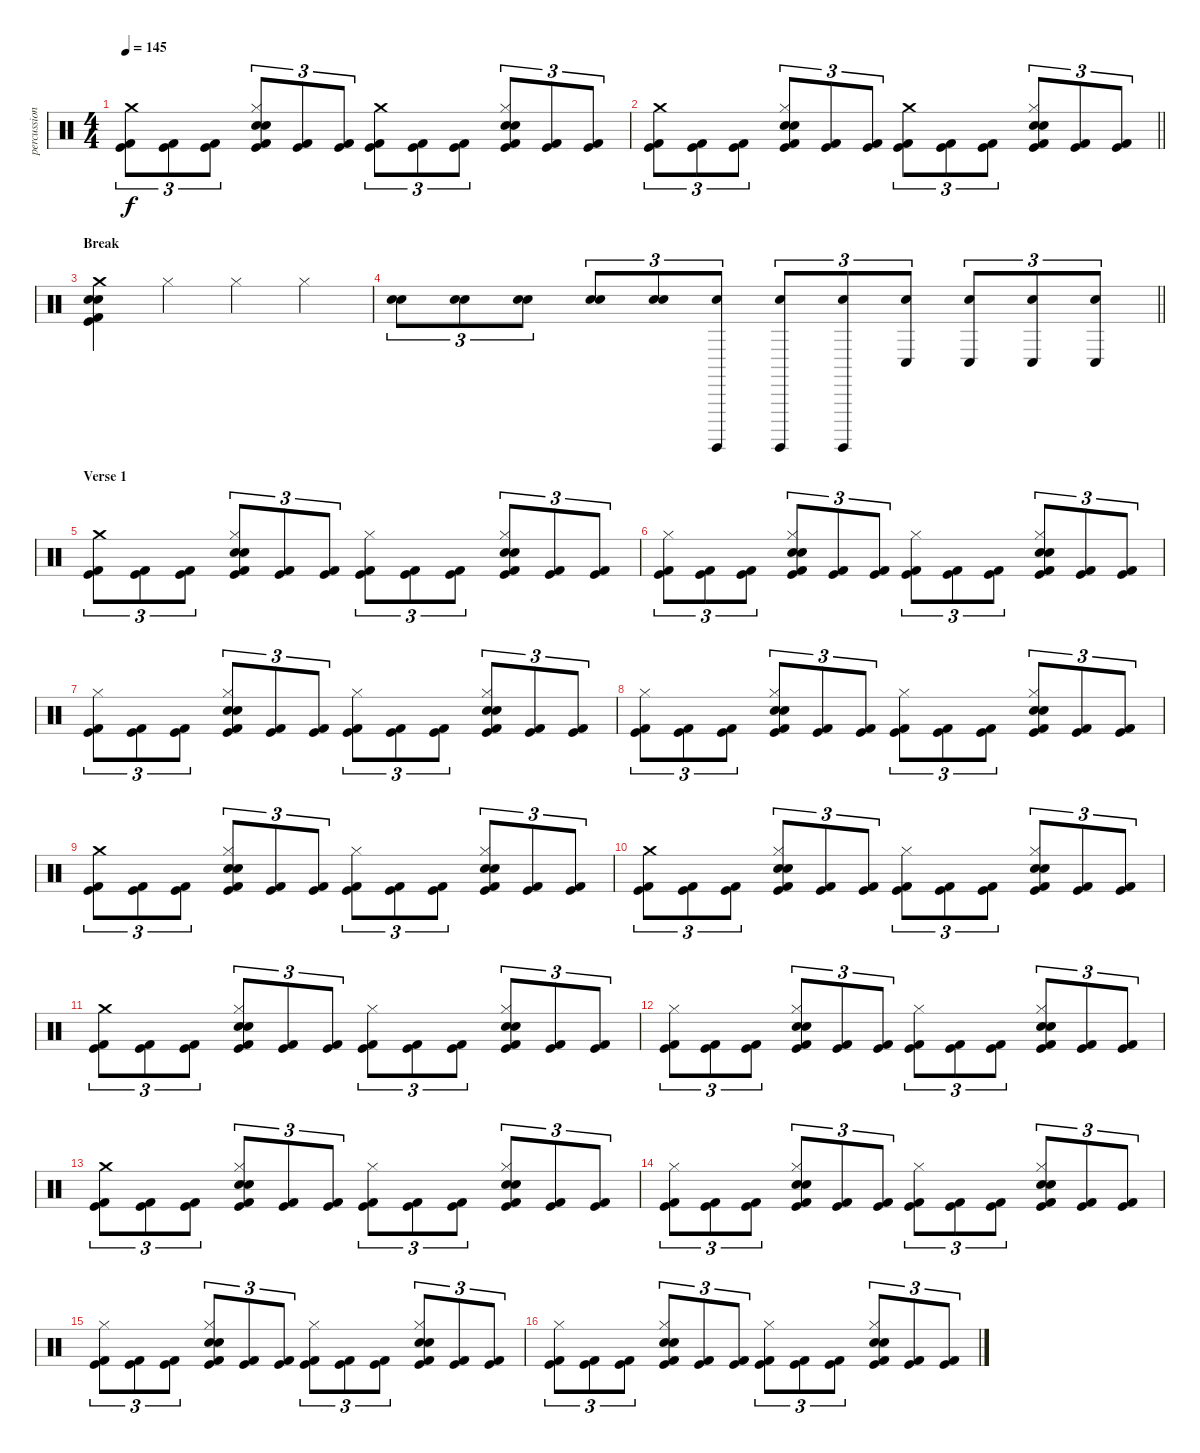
\track ("percussion" "percussion") {instrument percussion}
\staff {score}
\articulation defaults
\ts (4 4)
\tempo 145
\clef neutral
\ks c
("Crash medium (hit)" "Kick (hit)" "Kick (hit) 2").8{tu (3 2) dy f} ("Kick (hit)" "Kick (hit) 2").8{tu (3 2)} ("Kick (hit)" "Kick (hit) 2").8{tu (3 2)} ("Hi-Hat (closed)" "Electric Snare (hit)" "Snare (hit) 2" "Kick (hit)" "Kick (hit) 2").8{tu (3 2)} ("Kick (hit)" "Kick (hit) 2").8{tu (3 2)} ("Kick (hit)" "Kick (hit) 2").8{tu (3 2)} ("Crash medium (hit)" "Kick (hit)" "Kick (hit) 2").8{tu (3 2)} ("Kick (hit)" "Kick (hit) 2").8{tu (3 2)} ("Kick (hit)" "Kick (hit) 2").8{tu (3 2)} ("Hi-Hat (closed)" "Electric Snare (hit)" "Snare (hit) 2" "Kick (hit)" "Kick (hit) 2").8{tu (3 2)} ("Kick (hit)" "Kick (hit) 2").8{tu (3 2)} ("Kick (hit)" "Kick (hit) 2").8{tu (3 2)} |
\barLineRight lightlight
("Crash medium (hit)" "Kick (hit)" "Kick (hit) 2").8{tu (3 2)} ("Kick (hit)" "Kick (hit) 2").8{tu (3 2)} ("Kick (hit)" "Kick (hit) 2").8{tu (3 2)} ("Hi-Hat (closed)" "Electric Snare (hit)" "Snare (hit) 2" "Kick (hit)" "Kick (hit) 2").8{tu (3 2)} ("Kick (hit)" "Kick (hit) 2").8{tu (3 2)} ("Kick (hit)" "Kick (hit) 2").8{tu (3 2)} ("Crash medium (hit)" "Kick (hit)" "Kick (hit) 2").8{tu (3 2)} ("Kick (hit)" "Kick (hit) 2").8{tu (3 2)} ("Kick (hit)" "Kick (hit) 2").8{tu (3 2)} ("Hi-Hat (closed)" "Electric Snare (hit)" "Snare (hit) 2" "Kick (hit)" "Kick (hit) 2").8{tu (3 2)} ("Kick (hit)" "Kick (hit) 2").8{tu (3 2)} ("Kick (hit)" "Kick (hit) 2").8{tu (3 2)} |
\section ("" "Break")
("Crash medium (hit)" "Electric Snare (hit)" "Snare (hit) 2" "Kick (hit)" "Kick (hit) 2").4 "Hi-Hat (closed)".4 "Hi-Hat (closed)".4 "Hi-Hat (closed)".4 |
\barLineRight lightlight
("Electric Snare (hit)" "Snare (hit) 2").8{tu (3 2)} ("Electric Snare (hit)" "Snare (hit) 2").8{tu (3 2)} ("Electric Snare (hit)" "Snare (hit) 2").8{tu (3 2)} ("Electric Snare (hit)" "Snare (hit) 2").8{tu (3 2)} ("Electric Snare (hit)" "Snare (hit) 2").8{tu (3 2)} ("Electric Snare (hit)" "Surdo (hit)").8{tu (3 2)} ("Electric Snare (hit)" "Surdo (hit)").8{tu (3 2)} ("Electric Snare (hit)" "Surdo (hit)").8{tu (3 2)} ("Electric Snare (hit)" "Conga low (hit)").8{tu (3 2)} ("Electric Snare (hit)" "Conga low (hit)").8{tu (3 2)} ("Electric Snare (hit)" "Conga low (hit)").8{tu (3 2)} ("Electric Snare (hit)" "Conga low (hit)").8{tu (3 2)} |
\section ("" "Verse 1")
("Crash medium (hit)" "Kick (hit)" "Kick (hit) 2").8{tu (3 2)} ("Kick (hit)" "Kick (hit) 2").8{tu (3 2)} ("Kick (hit)" "Kick (hit) 2").8{tu (3 2)} ("Hi-Hat (closed)" "Electric Snare (hit)" "Snare (hit) 2" "Kick (hit)" "Kick (hit) 2").8{tu (3 2)} ("Kick (hit)" "Kick (hit) 2").8{tu (3 2)} ("Kick (hit)" "Kick (hit) 2").8{tu (3 2)} ("Hi-Hat (closed)" "Kick (hit)" "Kick (hit) 2").8{tu (3 2)} ("Kick (hit)" "Kick (hit) 2").8{tu (3 2)} ("Kick (hit)" "Kick (hit) 2").8{tu (3 2)} ("Hi-Hat (closed)" "Electric Snare (hit)" "Snare (hit) 2" "Kick (hit)" "Kick (hit) 2").8{tu (3 2)} ("Kick (hit)" "Kick (hit) 2").8{tu (3 2)} ("Kick (hit)" "Kick (hit) 2").8{tu (3 2)} |
("Hi-Hat (closed)" "Kick (hit)" "Kick (hit) 2").8{tu (3 2)} ("Kick (hit)" "Kick (hit) 2").8{tu (3 2)} ("Kick (hit)" "Kick (hit) 2").8{tu (3 2)} ("Hi-Hat (closed)" "Electric Snare (hit)" "Snare (hit) 2" "Kick (hit)" "Kick (hit) 2").8{tu (3 2)} ("Kick (hit)" "Kick (hit) 2").8{tu (3 2)} ("Kick (hit)" "Kick (hit) 2").8{tu (3 2)} ("Hi-Hat (closed)" "Kick (hit)" "Kick (hit) 2").8{tu (3 2)} ("Kick (hit)" "Kick (hit) 2").8{tu (3 2)} ("Kick (hit)" "Kick (hit) 2").8{tu (3 2)} ("Hi-Hat (closed)" "Electric Snare (hit)" "Snare (hit) 2" "Kick (hit)" "Kick (hit) 2").8{tu (3 2)} ("Kick (hit)" "Kick (hit) 2").8{tu (3 2)} ("Kick (hit)" "Kick (hit) 2").8{tu (3 2)} |
("Hi-Hat (closed)" "Kick (hit)" "Kick (hit) 2").8{tu (3 2)} ("Kick (hit)" "Kick (hit) 2").8{tu (3 2)} ("Kick (hit)" "Kick (hit) 2").8{tu (3 2)} ("Hi-Hat (closed)" "Electric Snare (hit)" "Snare (hit) 2" "Kick (hit)" "Kick (hit) 2").8{tu (3 2)} ("Kick (hit)" "Kick (hit) 2").8{tu (3 2)} ("Kick (hit)" "Kick (hit) 2").8{tu (3 2)} ("Hi-Hat (closed)" "Kick (hit)" "Kick (hit) 2").8{tu (3 2)} ("Kick (hit)" "Kick (hit) 2").8{tu (3 2)} ("Kick (hit)" "Kick (hit) 2").8{tu (3 2)} ("Hi-Hat (closed)" "Electric Snare (hit)" "Snare (hit) 2" "Kick (hit)" "Kick (hit) 2").8{tu (3 2)} ("Kick (hit)" "Kick (hit) 2").8{tu (3 2)} ("Kick (hit)" "Kick (hit) 2").8{tu (3 2)} |
("Hi-Hat (closed)" "Kick (hit)" "Kick (hit) 2").8{tu (3 2)} ("Kick (hit)" "Kick (hit) 2").8{tu (3 2)} ("Kick (hit)" "Kick (hit) 2").8{tu (3 2)} ("Hi-Hat (closed)" "Electric Snare (hit)" "Snare (hit) 2" "Kick (hit)" "Kick (hit) 2").8{tu (3 2)} ("Kick (hit)" "Kick (hit) 2").8{tu (3 2)} ("Kick (hit)" "Kick (hit) 2").8{tu (3 2)} ("Hi-Hat (closed)" "Kick (hit)" "Kick (hit) 2").8{tu (3 2)} ("Kick (hit)" "Kick (hit) 2").8{tu (3 2)} ("Kick (hit)" "Kick (hit) 2").8{tu (3 2)} ("Hi-Hat (closed)" "Electric Snare (hit)" "Snare (hit) 2" "Kick (hit)" "Kick (hit) 2").8{tu (3 2)} ("Kick (hit)" "Kick (hit) 2").8{tu (3 2)} ("Kick (hit)" "Kick (hit) 2").8{tu (3 2)} |
("Crash medium (hit)" "Kick (hit)" "Kick (hit) 2").8{tu (3 2)} ("Kick (hit)" "Kick (hit) 2").8{tu (3 2)} ("Kick (hit)" "Kick (hit) 2").8{tu (3 2)} ("Hi-Hat (closed)" "Electric Snare (hit)" "Snare (hit) 2" "Kick (hit)" "Kick (hit) 2").8{tu (3 2)} ("Kick (hit)" "Kick (hit) 2").8{tu (3 2)} ("Kick (hit)" "Kick (hit) 2").8{tu (3 2)} ("Hi-Hat (closed)" "Kick (hit)" "Kick (hit) 2").8{tu (3 2)} ("Kick (hit)" "Kick (hit) 2").8{tu (3 2)} ("Kick (hit)" "Kick (hit) 2").8{tu (3 2)} ("Hi-Hat (closed)" "Electric Snare (hit)" "Snare (hit) 2" "Kick (hit)" "Kick (hit) 2").8{tu (3 2)} ("Kick (hit)" "Kick (hit) 2").8{tu (3 2)} ("Kick (hit)" "Kick (hit) 2").8{tu (3 2)} |
("Crash medium (hit)" "Kick (hit)" "Kick (hit) 2").8{tu (3 2)} ("Kick (hit)" "Kick (hit) 2").8{tu (3 2)} ("Kick (hit)" "Kick (hit) 2").8{tu (3 2)} ("Hi-Hat (closed)" "Electric Snare (hit)" "Snare (hit) 2" "Kick (hit)" "Kick (hit) 2").8{tu (3 2)} ("Kick (hit)" "Kick (hit) 2").8{tu (3 2)} ("Kick (hit)" "Kick (hit) 2").8{tu (3 2)} ("Hi-Hat (closed)" "Kick (hit)" "Kick (hit) 2").8{tu (3 2)} ("Kick (hit)" "Kick (hit) 2").8{tu (3 2)} ("Kick (hit)" "Kick (hit) 2").8{tu (3 2)} ("Hi-Hat (closed)" "Electric Snare (hit)" "Snare (hit) 2" "Kick (hit)" "Kick (hit) 2").8{tu (3 2)} ("Kick (hit)" "Kick (hit) 2").8{tu (3 2)} ("Kick (hit)" "Kick (hit) 2").8{tu (3 2)} |
("Crash medium (hit)" "Kick (hit)" "Kick (hit) 2").8{tu (3 2)} ("Kick (hit)" "Kick (hit) 2").8{tu (3 2)} ("Kick (hit)" "Kick (hit) 2").8{tu (3 2)} ("Hi-Hat (closed)" "Electric Snare (hit)" "Snare (hit) 2" "Kick (hit)" "Kick (hit) 2").8{tu (3 2)} ("Kick (hit)" "Kick (hit) 2").8{tu (3 2)} ("Kick (hit)" "Kick (hit) 2").8{tu (3 2)} ("Hi-Hat (closed)" "Kick (hit)" "Kick (hit) 2").8{tu (3 2)} ("Kick (hit)" "Kick (hit) 2").8{tu (3 2)} ("Kick (hit)" "Kick (hit) 2").8{tu (3 2)} ("Hi-Hat (closed)" "Electric Snare (hit)" "Snare (hit) 2" "Kick (hit)" "Kick (hit) 2").8{tu (3 2)} ("Kick (hit)" "Kick (hit) 2").8{tu (3 2)} ("Kick (hit)" "Kick (hit) 2").8{tu (3 2)} |
("Hi-Hat (closed)" "Kick (hit)" "Kick (hit) 2").8{tu (3 2)} ("Kick (hit)" "Kick (hit) 2").8{tu (3 2)} ("Kick (hit)" "Kick (hit) 2").8{tu (3 2)} ("Hi-Hat (closed)" "Electric Snare (hit)" "Snare (hit) 2" "Kick (hit)" "Kick (hit) 2").8{tu (3 2)} ("Kick (hit)" "Kick (hit) 2").8{tu (3 2)} ("Kick (hit)" "Kick (hit) 2").8{tu (3 2)} ("Hi-Hat (closed)" "Kick (hit)" "Kick (hit) 2").8{tu (3 2)} ("Kick (hit)" "Kick (hit) 2").8{tu (3 2)} ("Kick (hit)" "Kick (hit) 2").8{tu (3 2)} ("Hi-Hat (closed)" "Electric Snare (hit)" "Snare (hit) 2" "Kick (hit)" "Kick (hit) 2").8{tu (3 2)} ("Kick (hit)" "Kick (hit) 2").8{tu (3 2)} ("Kick (hit)" "Kick (hit) 2").8{tu (3 2)} |
("Crash medium (hit)" "Kick (hit)" "Kick (hit) 2").8{tu (3 2)} ("Kick (hit)" "Kick (hit) 2").8{tu (3 2)} ("Kick (hit)" "Kick (hit) 2").8{tu (3 2)} ("Hi-Hat (closed)" "Electric Snare (hit)" "Snare (hit) 2" "Kick (hit)" "Kick (hit) 2").8{tu (3 2)} ("Kick (hit)" "Kick (hit) 2").8{tu (3 2)} ("Kick (hit)" "Kick (hit) 2").8{tu (3 2)} ("Hi-Hat (closed)" "Kick (hit)" "Kick (hit) 2").8{tu (3 2)} ("Kick (hit)" "Kick (hit) 2").8{tu (3 2)} ("Kick (hit)" "Kick (hit) 2").8{tu (3 2)} ("Hi-Hat (closed)" "Electric Snare (hit)" "Snare (hit) 2" "Kick (hit)" "Kick (hit) 2").8{tu (3 2)} ("Kick (hit)" "Kick (hit) 2").8{tu (3 2)} ("Kick (hit)" "Kick (hit) 2").8{tu (3 2)} |
("Hi-Hat (closed)" "Kick (hit)" "Kick (hit) 2").8{tu (3 2)} ("Kick (hit)" "Kick (hit) 2").8{tu (3 2)} ("Kick (hit)" "Kick (hit) 2").8{tu (3 2)} ("Hi-Hat (closed)" "Electric Snare (hit)" "Snare (hit) 2" "Kick (hit)" "Kick (hit) 2").8{tu (3 2)} ("Kick (hit)" "Kick (hit) 2").8{tu (3 2)} ("Kick (hit)" "Kick (hit) 2").8{tu (3 2)} ("Hi-Hat (closed)" "Kick (hit)" "Kick (hit) 2").8{tu (3 2)} ("Kick (hit)" "Kick (hit) 2").8{tu (3 2)} ("Kick (hit)" "Kick (hit) 2").8{tu (3 2)} ("Hi-Hat (closed)" "Electric Snare (hit)" "Snare (hit) 2" "Kick (hit)" "Kick (hit) 2").8{tu (3 2)} ("Kick (hit)" "Kick (hit) 2").8{tu (3 2)} ("Kick (hit)" "Kick (hit) 2").8{tu (3 2)} |
("Hi-Hat (closed)" "Kick (hit)" "Kick (hit) 2").8{tu (3 2)} ("Kick (hit)" "Kick (hit) 2").8{tu (3 2)} ("Kick (hit)" "Kick (hit) 2").8{tu (3 2)} ("Hi-Hat (closed)" "Electric Snare (hit)" "Snare (hit) 2" "Kick (hit)" "Kick (hit) 2").8{tu (3 2)} ("Kick (hit)" "Kick (hit) 2").8{tu (3 2)} ("Kick (hit)" "Kick (hit) 2").8{tu (3 2)} ("Hi-Hat (closed)" "Kick (hit)" "Kick (hit) 2").8{tu (3 2)} ("Kick (hit)" "Kick (hit) 2").8{tu (3 2)} ("Kick (hit)" "Kick (hit) 2").8{tu (3 2)} ("Hi-Hat (closed)" "Electric Snare (hit)" "Snare (hit) 2" "Kick (hit)" "Kick (hit) 2").8{tu (3 2)} ("Kick (hit)" "Kick (hit) 2").8{tu (3 2)} ("Kick (hit)" "Kick (hit) 2").8{tu (3 2)} |
("Hi-Hat (closed)" "Kick (hit)" "Kick (hit) 2").8{tu (3 2)} ("Kick (hit)" "Kick (hit) 2").8{tu (3 2)} ("Kick (hit)" "Kick (hit) 2").8{tu (3 2)} ("Hi-Hat (closed)" "Electric Snare (hit)" "Snare (hit) 2" "Kick (hit)" "Kick (hit) 2").8{tu (3 2)} ("Kick (hit)" "Kick (hit) 2").8{tu (3 2)} ("Kick (hit)" "Kick (hit) 2").8{tu (3 2)} ("Hi-Hat (closed)" "Kick (hit)" "Kick (hit) 2").8{tu (3 2)} ("Kick (hit)" "Kick (hit) 2").8{tu (3 2)} ("Kick (hit)" "Kick (hit) 2").8{tu (3 2)} ("Hi-Hat (closed)" "Electric Snare (hit)" "Snare (hit) 2" "Kick (hit)" "Kick (hit) 2").8{tu (3 2)} ("Kick (hit)" "Kick (hit) 2").8{tu (3 2)} ("Kick (hit)" "Kick (hit) 2").8{tu (3 2)}
